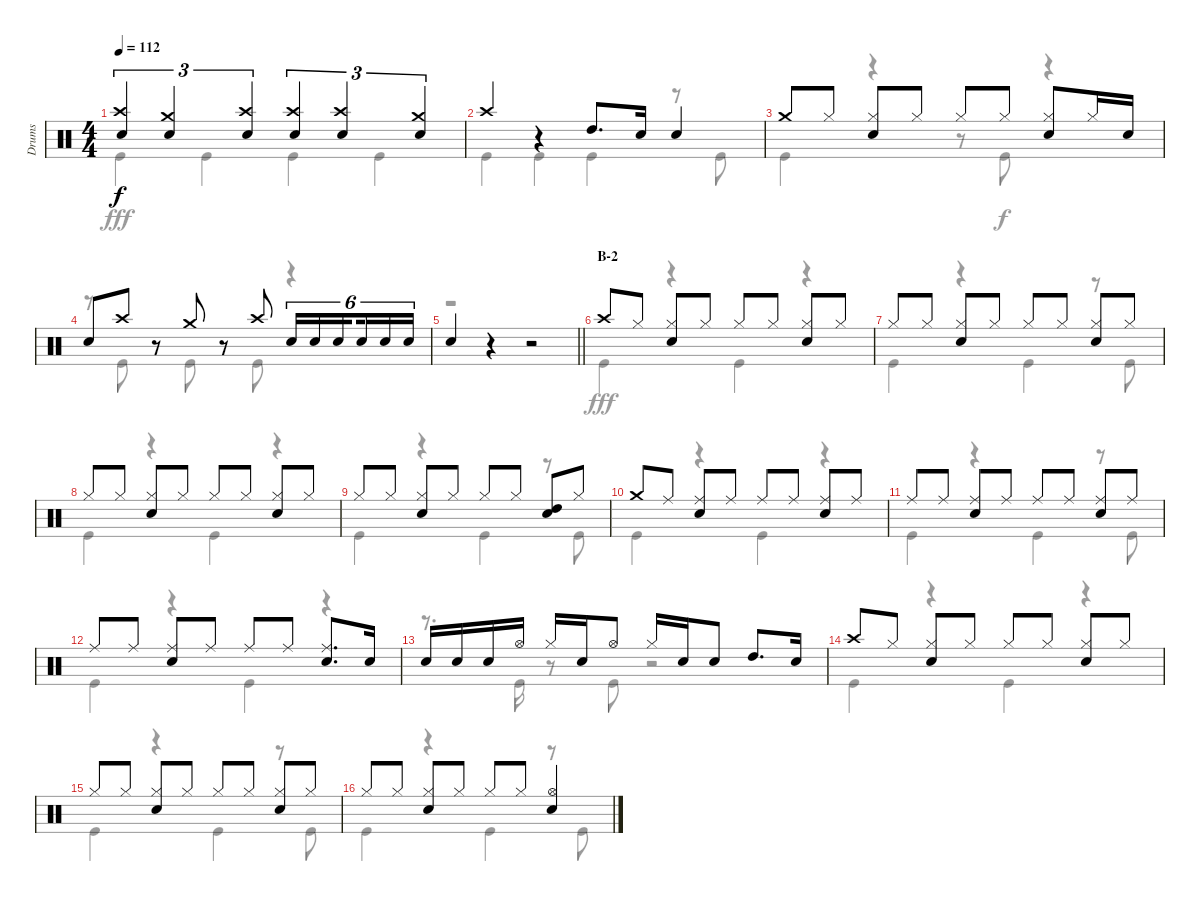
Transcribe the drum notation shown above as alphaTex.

\track ("Drums" "Drums") {instrument percussion}
\staff {score}
\articulation defaults
\voice
\ts (4 4)
\tempo 112
\clef neutral
\ks c
("Snare (hit) 2" "Crash high (hit)").4{tu (3 2) dy f} ("Crash medium (hit)" "Snare (hit) 2").4{tu (3 2)} ("Snare (hit) 2" "Crash high (hit)").4{tu (3 2)} ("Crash high (hit)" "Snare (hit) 2").4{tu (3 2)} ("Snare (hit) 2" "Crash high (hit)").4{tu (3 2)} ("Crash medium (hit)" "Snare (hit) 2").4{tu (3 2)} |
"Crash high (hit)".4 r.4 "High Tom (hit)".8{d} "Snare (hit) 2".16 "Snare (hit) 2".4 |
"Crash medium (hit)".8 "Hi-Hat (closed)".8 ("Hi-Hat (closed)" "Snare (hit) 2").8 "Hi-Hat (closed)".8 "Hi-Hat (closed)".8 "Hi-Hat (closed)".8 ("Hi-Hat (closed)" "Snare (hit) 2").8 "Hi-Hat (closed)".16 "Snare (hit) 2".16 |
"Snare (hit) 2".8 "Crash high (hit)".8 r.8 "Crash medium (hit)".8 r.8 "Crash high (hit)".8 "Snare (hit) 2".16{tu (6 4)} "Snare (hit) 2".16{tu (6 4)} "Snare (hit) 2".16{tu (6 4) beam splitsecondary} "Snare (hit) 2".16{tu (6 4)} "Snare (hit) 2".16{tu (6 4)} "Snare (hit) 2".16{tu (6 4)} |
\barLineRight lightlight "Snare (hit) 2".4
r.4 r.2 |
\section ("" "B-2")
"Crash high (hit)".8 "Hi-Hat (closed)".8 ("Hi-Hat (closed)" "Snare (hit) 2").8 "Hi-Hat (closed)".8 "Hi-Hat (closed)".8 "Hi-Hat (closed)".8 ("Hi-Hat (closed)" "Snare (hit) 2").8 "Hi-Hat (closed)".8 |
"Hi-Hat (closed)".8 "Hi-Hat (closed)".8 ("Hi-Hat (closed)" "Snare (hit) 2").8 "Hi-Hat (closed)".8 "Hi-Hat (closed)".8 "Hi-Hat (closed)".8 ("Hi-Hat (closed)" "Snare (hit) 2").8 "Hi-Hat (closed)".8 |
"Hi-Hat (closed)".8 "Hi-Hat (closed)".8 ("Hi-Hat (closed)" "Snare (hit) 2").8 "Hi-Hat (closed)".8 "Hi-Hat (closed)".8 "Hi-Hat (closed)".8 ("Hi-Hat (closed)" "Snare (hit) 2").8 "Hi-Hat (closed)".8 |
"Hi-Hat (closed)".8 "Hi-Hat (closed)".8 ("Hi-Hat (closed)" "Snare (hit) 2").8 "Hi-Hat (closed)".8 "Hi-Hat (closed)".8 "Hi-Hat (closed)".8 ("High Tom (hit)" "Snare (hit) 2").8 "Hi-Hat (closed)".8 |
"Crash medium (hit)".8 "Ride (middle)".8 ("Ride (middle)" "Snare (hit) 2").8 "Ride (middle)".8 "Ride (middle)".8 "Ride (middle)".8 ("Ride (middle)" "Snare (hit) 2").8 "Ride (middle)".8 |
"Ride (middle)".8 "Ride (middle)".8 ("Ride (middle)" "Snare (hit) 2").8 "Ride (middle)".8 "Ride (middle)".8 "Ride (middle)".8 ("Ride (middle)" "Snare (hit) 2").8 "Ride (middle)".8 |
"Ride (middle)".8 "Ride (middle)".8 ("Ride (middle)" "Snare (hit) 2").8 "Ride (middle)".8 "Ride (middle)".8 "Ride (middle)".8 ("Ride (middle)" "Snare (hit) 2").8{d} "Snare (hit) 2".16 |
"Snare (hit) 2".16 "Snare (hit) 2".16 "Snare (hit) 2".16 "Hi-Hat (open)".16 "Hi-Hat (closed)".16 "Snare (hit) 2".16 "Hi-Hat (open)".8 "Hi-Hat (closed)".16 "Snare (hit) 2".16 "Snare (hit) 2".8 "High Tom (hit)".8{d} "Snare (hit) 2".16 |
"Crash high (hit)".8 "Hi-Hat (closed)".8 ("Hi-Hat (closed)" "Snare (hit) 2").8 "Hi-Hat (closed)".8 "Hi-Hat (closed)".8 "Hi-Hat (closed)".8 ("Hi-Hat (closed)" "Snare (hit) 2").8 "Hi-Hat (closed)".8 |
"Hi-Hat (closed)".8 "Hi-Hat (closed)".8 ("Hi-Hat (closed)" "Snare (hit) 2").8 "Hi-Hat (closed)".8 "Hi-Hat (closed)".8 "Hi-Hat (closed)".8 ("Hi-Hat (closed)" "Snare (hit) 2").8 "Hi-Hat (closed)".8 |
"Hi-Hat (closed)".8 "Hi-Hat (closed)".8 ("Hi-Hat (closed)" "Snare (hit) 2").8 "Hi-Hat (closed)".8 "Hi-Hat (closed)".8 "Hi-Hat (closed)".8 ("Hi-Hat (open)" "Snare (hit) 2").4
\voice
\clef neutral
\ottava regular
\simile none
\ks c "Kick (hit)".4{dy fff} "Kick (hit)".4 "Kick (hit)".4 "Kick (hit)".4
|
"Kick (hit)".4 "Kick (hit)".4 "Kick (hit)".4 r.8 "Kick (hit)".8 |
"Kick (hit)".4 r.4 r.8 "Kick (hit)".8{dy f} r.4 |
r.8 "Kick (hit)".8 r.8 "Kick (hit)".8 r.8 "Kick (hit)".8 r.4 |
\barLineRight lightlight
r.1 |
"Kick (hit)".4{dy fff} r.4 "Kick (hit)".4 r.4 |
"Kick (hit)".4 r.4 "Kick (hit)".4 r.8 "Kick (hit)".8 |
"Kick (hit)".4 r.4 "Kick (hit)".4 r.4 |
"Kick (hit)".4 r.4 "Kick (hit)".4 r.8 "Kick (hit)".8 |
"Kick (hit)".4 r.4 "Kick (hit)".4 r.4 |
"Kick (hit)".4 r.4 "Kick (hit)".4 r.8 "Kick (hit)".8 |
"Kick (hit)".4 r.4 "Kick (hit)".4 r.4 |
r.8{d} "Kick (hit)".16 r.8 "Kick (hit)".8 r.2 |
"Kick (hit)".4 r.4 "Kick (hit)".4 r.4 |
"Kick (hit)".4 r.4 "Kick (hit)".4 r.8 "Kick (hit)".8 |
"Kick (hit)".4 r.4 "Kick (hit)".4 r.8 "Kick (hit)".8
